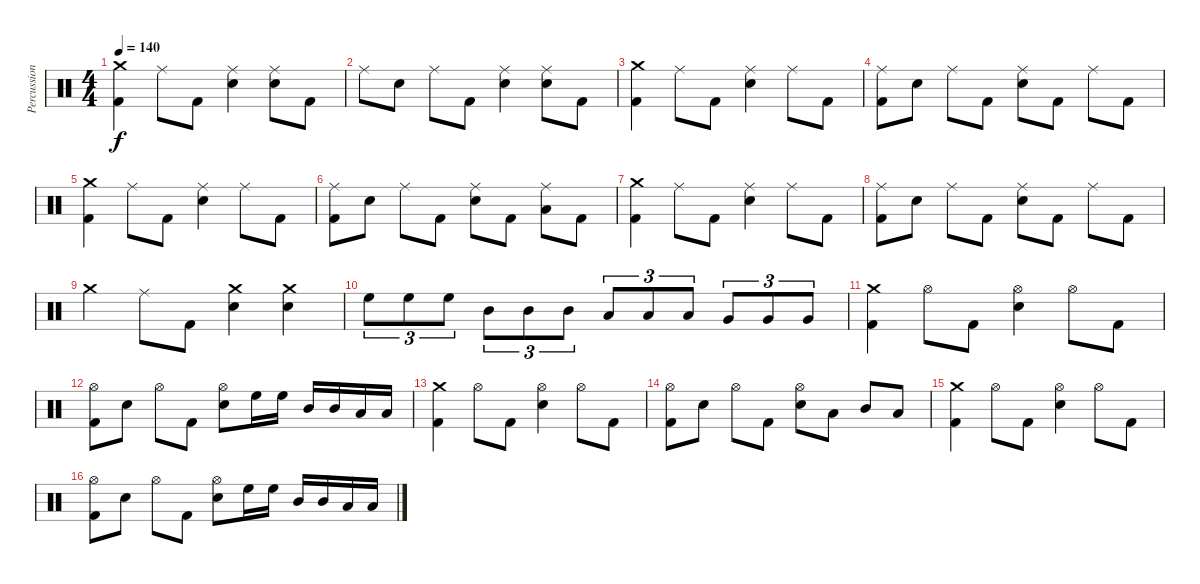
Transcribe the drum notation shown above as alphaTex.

\track ("Percussion" "Percussion") {instrument percussion}
\staff {score}
\articulation defaults
\ts (4 4)
\tempo 140
\clef neutral
\ks c
("Crash medium (hit)" "Kick (hit) 2").4{dy f} "Ride (middle)".8 "Kick (hit) 2".8 ("Ride (middle)" "Snare (hit) 2").4 ("Ride (middle)" "Snare (hit) 2").8 "Kick (hit) 2".8 |
"Ride (middle)".8 "Snare (hit) 2".8 "Ride (middle)".8 "Kick (hit) 2".8 ("Ride (middle)" "Snare (hit) 2").4 ("Ride (middle)" "Snare (hit) 2").8 "Kick (hit) 2".8 |
("Crash medium (hit)" "Kick (hit) 2").4 "Ride (middle)".8 "Kick (hit) 2".8 ("Ride (middle)" "Snare (hit) 2").4 "Ride (middle)".8 "Kick (hit) 2".8 |
("Ride (middle)" "Kick (hit) 2").8 "Snare (hit) 2".8 "Ride (middle)".8 "Kick (hit) 2".8 ("Ride (middle)" "Snare (hit) 2").8 "Kick (hit) 2".8 "Ride (middle)".8 "Kick (hit) 2".8 |
("Crash medium (hit)" "Kick (hit) 2").4 "Ride (middle)".8 "Kick (hit) 2".8 ("Ride (middle)" "Snare (hit) 2").4 "Ride (middle)".8 "Kick (hit) 2".8 |
("Ride (middle)" "Kick (hit) 2").8 "Snare (hit) 2".8 "Ride (middle)".8 "Kick (hit) 2".8 ("Ride (middle)" "Snare (hit) 2").8 "Kick (hit) 2".8 ("Ride (middle)" "Low Tom (hit)").8 "Kick (hit) 2".8 |
("Crash medium (hit)" "Kick (hit) 2").4 "Ride (middle)".8 "Kick (hit) 2".8 ("Ride (middle)" "Snare (hit) 2").4 "Ride (middle)".8 "Kick (hit) 2".8 |
("Ride (middle)" "Kick (hit) 2").8 "Snare (hit) 2".8 "Ride (middle)".8 "Kick (hit) 2".8 ("Ride (middle)" "Snare (hit) 2").8 "Kick (hit) 2".8 "Ride (middle)".8 "Kick (hit) 2".8 |
"Crash medium (hit)".4 "Ride (middle)".8 "Kick (hit) 2".8 ("Crash medium (hit)" "Snare (hit) 2").4 ("Crash medium (hit)" "Snare (hit) 2").4 |
"High Floor Tom (hit)".8{tu (3 2)} "High Floor Tom (hit)".8{tu (3 2)} "High Floor Tom (hit)".8{tu (3 2)} "Mid Tom (hit)".8{tu (3 2)} "Mid Tom (hit)".8{tu (3 2)} "Mid Tom (hit)".8{tu (3 2)} "Low Tom (hit)".8{tu (3 2)} "Low Tom (hit)".8{tu (3 2)} "Low Tom (hit)".8{tu (3 2)} "Very Low Tom (hit)".8{tu (3 2)} "Very Low Tom (hit)".8{tu (3 2)} "Very Low Tom (hit)".8{tu (3 2)} |
("Crash medium (hit)" "Kick (hit) 2").4 "Hi-Hat (open)".8 "Kick (hit) 2".8 ("Hi-Hat (open)" "Snare (hit) 2").4 "Hi-Hat (open)".8 "Kick (hit) 2".8 |
("Hi-Hat (open)" "Kick (hit) 2").8 "Snare (hit) 2".8 "Hi-Hat (open)".8 "Kick (hit) 2".8 ("Hi-Hat (open)" "Snare (hit) 2").8 "High Floor Tom (hit)".16 "High Floor Tom (hit)".16 "Mid Tom (hit)".16 "Mid Tom (hit)".16 "Low Tom (hit)".16 "Low Tom (hit)".16 |
("Crash medium (hit)" "Kick (hit) 2").4 "Hi-Hat (open)".8 "Kick (hit) 2".8 ("Hi-Hat (open)" "Snare (hit) 2").4 "Hi-Hat (open)".8 "Kick (hit) 2".8 |
("Hi-Hat (open)" "Kick (hit) 2").8 "Snare (hit) 2".8 "Hi-Hat (open)".8 "Kick (hit) 2".8 ("Hi-Hat (open)" "Snare (hit) 2").8 "Low Tom (hit)".8 "Mid Tom (hit)".8 "Low Tom (hit)".8 |
("Crash medium (hit)" "Kick (hit) 2").4 "Hi-Hat (open)".8 "Kick (hit) 2".8 ("Hi-Hat (open)" "Snare (hit) 2").4 "Hi-Hat (open)".8 "Kick (hit) 2".8 |
("Hi-Hat (open)" "Kick (hit) 2").8 "Snare (hit) 2".8 "Hi-Hat (open)".8 "Kick (hit) 2".8 ("Hi-Hat (open)" "Snare (hit) 2").8 "High Floor Tom (hit)".16 "High Floor Tom (hit)".16 "Mid Tom (hit)".16 "Mid Tom (hit)".16 "Low Tom (hit)".16 "Low Tom (hit)".16
